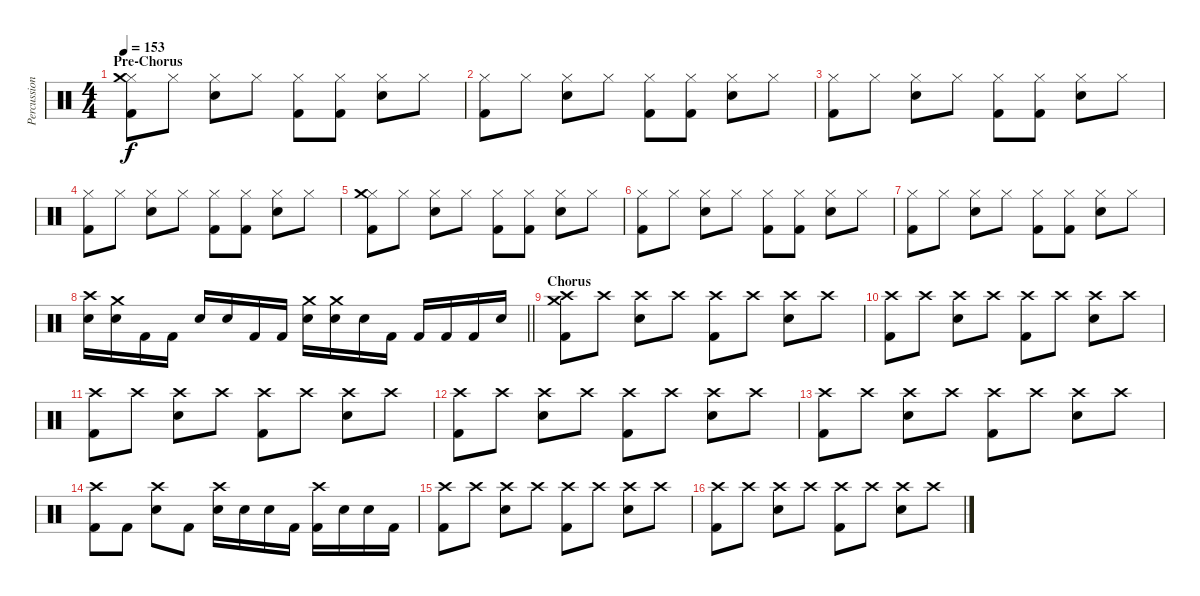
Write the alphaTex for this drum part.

\track ("Percussion" "Percussion") {instrument percussion}
\staff {score}
\articulation defaults
\ts (4 4)
\section ("" "Pre-Chorus")
\tempo 153
\clef neutral
\ks c
("Hi-Hat (closed)" "Crash medium (hit)" "Kick (hit) 2").8{dy f} "Hi-Hat (closed)".8 ("Hi-Hat (closed)" "Snare (hit) 2").8 "Hi-Hat (closed)".8 ("Hi-Hat (closed)" "Kick (hit) 2").8 ("Hi-Hat (closed)" "Kick (hit) 2").8 ("Hi-Hat (closed)" "Snare (hit) 2").8 "Hi-Hat (closed)".8 |
("Hi-Hat (closed)" "Kick (hit) 2").8 "Hi-Hat (closed)".8 ("Hi-Hat (closed)" "Snare (hit) 2").8 "Hi-Hat (closed)".8 ("Hi-Hat (closed)" "Kick (hit) 2").8 ("Hi-Hat (closed)" "Kick (hit) 2").8 ("Hi-Hat (closed)" "Snare (hit) 2").8 "Hi-Hat (closed)".8 |
("Hi-Hat (closed)" "Kick (hit) 2").8 "Hi-Hat (closed)".8 ("Hi-Hat (closed)" "Snare (hit) 2").8 "Hi-Hat (closed)".8 ("Hi-Hat (closed)" "Kick (hit) 2").8 ("Hi-Hat (closed)" "Kick (hit) 2").8 ("Hi-Hat (closed)" "Snare (hit) 2").8 "Hi-Hat (closed)".8 |
("Hi-Hat (closed)" "Kick (hit) 2").8 "Hi-Hat (closed)".8 ("Hi-Hat (closed)" "Snare (hit) 2").8 "Hi-Hat (closed)".8 ("Hi-Hat (closed)" "Kick (hit) 2").8 ("Hi-Hat (closed)" "Kick (hit) 2").8 ("Hi-Hat (closed)" "Snare (hit) 2").8 "Hi-Hat (closed)".8 |
("Hi-Hat (closed)" "Crash medium (hit)" "Kick (hit) 2").8 "Hi-Hat (closed)".8 ("Hi-Hat (closed)" "Snare (hit) 2").8 "Hi-Hat (closed)".8 ("Hi-Hat (closed)" "Kick (hit) 2").8 ("Hi-Hat (closed)" "Kick (hit) 2").8 ("Hi-Hat (closed)" "Snare (hit) 2").8 "Hi-Hat (closed)".8 |
("Hi-Hat (closed)" "Kick (hit) 2").8 "Hi-Hat (closed)".8 ("Hi-Hat (closed)" "Snare (hit) 2").8 "Hi-Hat (closed)".8 ("Hi-Hat (closed)" "Kick (hit) 2").8 ("Hi-Hat (closed)" "Kick (hit) 2").8 ("Hi-Hat (closed)" "Snare (hit) 2").8 "Hi-Hat (closed)".8 |
("Hi-Hat (closed)" "Kick (hit) 2").8 "Hi-Hat (closed)".8 ("Hi-Hat (closed)" "Snare (hit) 2").8 "Hi-Hat (closed)".8 ("Hi-Hat (closed)" "Kick (hit) 2").8 ("Hi-Hat (closed)" "Kick (hit) 2").8 ("Hi-Hat (closed)" "Snare (hit) 2").8 "Hi-Hat (closed)".8 |
\barLineRight lightlight
("Crash high (hit)" "Snare (hit) 2").16 ("Crash medium (hit)" "Snare (hit) 2").16 "Kick (hit) 2".16 "Kick (hit) 2".16 "Snare (hit) 2".16 "Snare (hit) 2".16 "Kick (hit) 2".16 "Kick (hit) 2".16 ("Crash medium (hit)" "Snare (hit) 2").16 ("Crash medium (hit)" "Snare (hit) 2").16 "Snare (hit) 2".16 "Kick (hit) 2".16 "Kick (hit) 2".16 "Kick (hit) 2".16 "Kick (hit) 2".16 "Snare (hit) 2".16 |
\section ("" "Chorus")
("Crash high (hit)" "Crash medium (hit)" "Kick (hit) 2").8 "Crash high (hit)".8 ("Crash high (hit)" "Snare (hit) 2").8 "Crash high (hit)".8 ("Crash high (hit)" "Kick (hit) 2").8 "Crash high (hit)".8 ("Crash high (hit)" "Snare (hit) 2").8 "Crash high (hit)".8 |
("Crash high (hit)" "Kick (hit) 2").8 "Crash high (hit)".8 ("Crash high (hit)" "Snare (hit) 2").8 "Crash high (hit)".8 ("Crash high (hit)" "Kick (hit) 2").8 "Crash high (hit)".8 ("Crash high (hit)" "Snare (hit) 2").8 "Crash high (hit)".8 |
("Crash high (hit)" "Kick (hit) 2").8 "Crash high (hit)".8 ("Crash high (hit)" "Snare (hit) 2").8 "Crash high (hit)".8 ("Crash high (hit)" "Kick (hit) 2").8 "Crash high (hit)".8 ("Crash high (hit)" "Snare (hit) 2").8 "Crash high (hit)".8 |
("Crash high (hit)" "Kick (hit) 2").8 "Crash high (hit)".8 ("Crash high (hit)" "Snare (hit) 2").8 "Crash high (hit)".8 ("Crash high (hit)" "Kick (hit) 2").8 "Crash high (hit)".8 ("Crash high (hit)" "Snare (hit) 2").8 "Crash high (hit)".8 |
("Crash high (hit)" "Kick (hit) 2").8 "Crash high (hit)".8 ("Crash high (hit)" "Snare (hit) 2").8 "Crash high (hit)".8 ("Crash high (hit)" "Kick (hit) 2").8 "Crash high (hit)".8 ("Crash high (hit)" "Snare (hit) 2").8 "Crash high (hit)".8 |
("Crash high (hit)" "Kick (hit) 2").8 "Kick (hit) 2".8 ("Crash high (hit)" "Snare (hit) 2").8 "Kick (hit) 2".8 ("Crash high (hit)" "Snare (hit) 2").16 "Snare (hit) 2".16 "Snare (hit) 2".16 "Kick (hit) 2".16 ("Crash high (hit)" "Kick (hit) 2").16 "Snare (hit) 2".16 "Snare (hit) 2".16 "Kick (hit) 2".16 |
("Crash high (hit)" "Kick (hit) 2").8 "Crash high (hit)".8 ("Crash high (hit)" "Snare (hit) 2").8 "Crash high (hit)".8 ("Crash high (hit)" "Kick (hit) 2").8 "Crash high (hit)".8 ("Crash high (hit)" "Snare (hit) 2").8 "Crash high (hit)".8 |
("Crash high (hit)" "Kick (hit) 2").8 "Crash high (hit)".8 ("Crash high (hit)" "Snare (hit) 2").8 "Crash high (hit)".8 ("Crash high (hit)" "Kick (hit) 2").8 "Crash high (hit)".8 ("Crash high (hit)" "Snare (hit) 2").8 "Crash high (hit)".8
